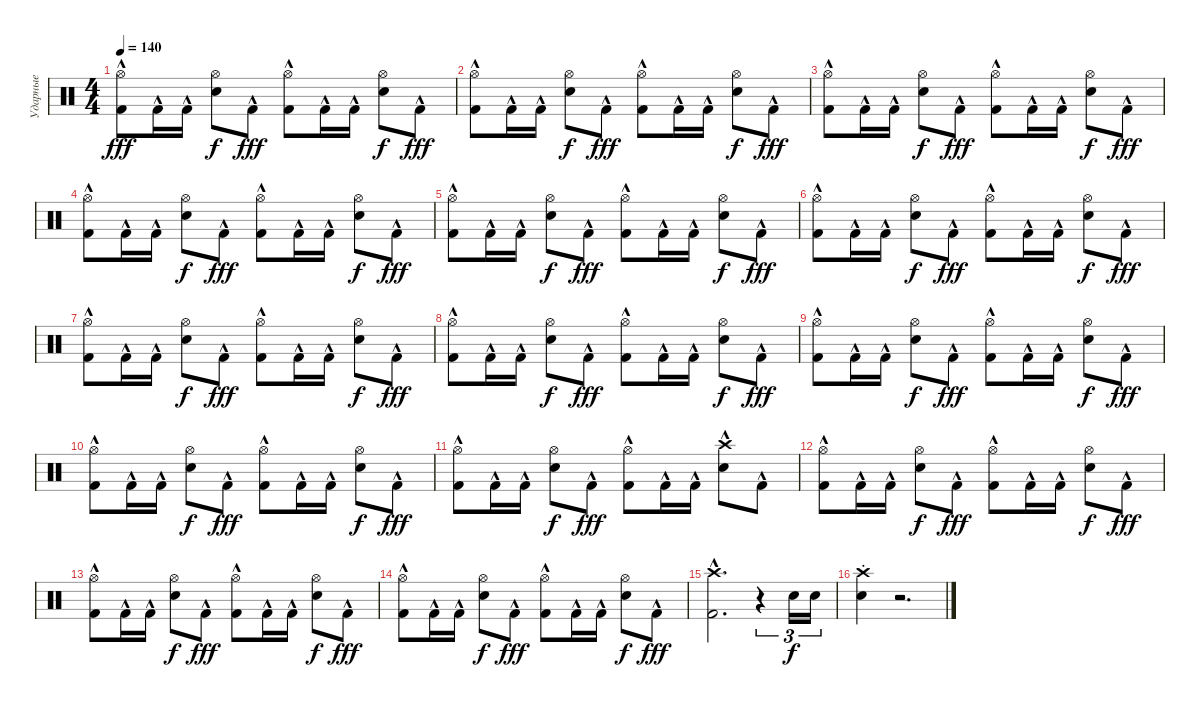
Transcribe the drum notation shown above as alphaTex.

\track ("Ударные" "Ударные") {instrument percussion}
\staff {score}
\articulation defaults
\ts (4 4)
\tempo 140
\clef neutral
\ks c
("Kick (hit) 2"{hac} "Hi-Hat (open)").8{dy fff} "Kick (hit) 2"{hac}.16 "Kick (hit) 2"{hac}.16 ("Snare (hit) 2" "Hi-Hat (open)").8{dy f} "Kick (hit) 2"{hac}.8{dy fff} ("Kick (hit) 2"{hac} "Hi-Hat (open)").8 "Kick (hit) 2"{hac}.16 "Kick (hit) 2"{hac}.16 ("Snare (hit) 2" "Hi-Hat (open)").8{dy f} "Kick (hit) 2"{hac}.8{dy fff} |
("Kick (hit) 2"{hac} "Hi-Hat (open)").8 "Kick (hit) 2"{hac}.16 "Kick (hit) 2"{hac}.16 ("Snare (hit) 2" "Hi-Hat (open)").8{dy f} "Kick (hit) 2"{hac}.8{dy fff} ("Kick (hit) 2"{hac} "Hi-Hat (open)").8 "Kick (hit) 2"{hac}.16 "Kick (hit) 2"{hac}.16 ("Snare (hit) 2" "Hi-Hat (open)").8{dy f} "Kick (hit) 2"{hac}.8{dy fff} |
("Kick (hit) 2"{hac} "Hi-Hat (open)").8 "Kick (hit) 2"{hac}.16 "Kick (hit) 2"{hac}.16 ("Snare (hit) 2" "Hi-Hat (open)").8{dy f} "Kick (hit) 2"{hac}.8{dy fff} ("Kick (hit) 2"{hac} "Hi-Hat (open)").8 "Kick (hit) 2"{hac}.16 "Kick (hit) 2"{hac}.16 ("Snare (hit) 2" "Hi-Hat (open)").8{dy f} "Kick (hit) 2"{hac}.8{dy fff} |
("Kick (hit) 2"{hac} "Hi-Hat (open)").8 "Kick (hit) 2"{hac}.16 "Kick (hit) 2"{hac}.16 ("Snare (hit) 2" "Hi-Hat (open)").8{dy f} "Kick (hit) 2"{hac}.8{dy fff} ("Kick (hit) 2"{hac} "Hi-Hat (open)").8 "Kick (hit) 2"{hac}.16 "Kick (hit) 2"{hac}.16 ("Snare (hit) 2" "Hi-Hat (open)").8{dy f} "Kick (hit) 2"{hac}.8{dy fff} |
("Kick (hit) 2"{hac} "Hi-Hat (open)").8 "Kick (hit) 2"{hac}.16 "Kick (hit) 2"{hac}.16 ("Snare (hit) 2" "Hi-Hat (open)").8{dy f} "Kick (hit) 2"{hac}.8{dy fff} ("Kick (hit) 2"{hac} "Hi-Hat (open)").8 "Kick (hit) 2"{hac}.16 "Kick (hit) 2"{hac}.16 ("Snare (hit) 2" "Hi-Hat (open)").8{dy f} "Kick (hit) 2"{hac}.8{dy fff} |
("Kick (hit) 2"{hac} "Hi-Hat (open)").8 "Kick (hit) 2"{hac}.16 "Kick (hit) 2"{hac}.16 ("Snare (hit) 2" "Hi-Hat (open)").8{dy f} "Kick (hit) 2"{hac}.8{dy fff} ("Kick (hit) 2"{hac} "Hi-Hat (open)").8 "Kick (hit) 2"{hac}.16 "Kick (hit) 2"{hac}.16 ("Snare (hit) 2" "Hi-Hat (open)").8{dy f} "Kick (hit) 2"{hac}.8{dy fff} |
("Kick (hit) 2"{hac} "Hi-Hat (open)").8 "Kick (hit) 2"{hac}.16 "Kick (hit) 2"{hac}.16 ("Snare (hit) 2" "Hi-Hat (open)").8{dy f} "Kick (hit) 2"{hac}.8{dy fff} ("Kick (hit) 2"{hac} "Hi-Hat (open)").8 "Kick (hit) 2"{hac}.16 "Kick (hit) 2"{hac}.16 ("Snare (hit) 2" "Hi-Hat (open)").8{dy f} "Kick (hit) 2"{hac}.8{dy fff} |
("Kick (hit) 2"{hac} "Hi-Hat (open)").8 "Kick (hit) 2"{hac}.16 "Kick (hit) 2"{hac}.16 ("Snare (hit) 2" "Hi-Hat (open)").8{dy f} "Kick (hit) 2"{hac}.8{dy fff} ("Kick (hit) 2"{hac} "Hi-Hat (open)").8 "Kick (hit) 2"{hac}.16 "Kick (hit) 2"{hac}.16 ("Snare (hit) 2" "Hi-Hat (open)").8{dy f} "Kick (hit) 2"{hac}.8{dy fff} |
("Kick (hit) 2"{hac} "Hi-Hat (open)").8 "Kick (hit) 2"{hac}.16 "Kick (hit) 2"{hac}.16 ("Snare (hit) 2" "Hi-Hat (open)").8{dy f} "Kick (hit) 2"{hac}.8{dy fff} ("Kick (hit) 2"{hac} "Hi-Hat (open)").8 "Kick (hit) 2"{hac}.16 "Kick (hit) 2"{hac}.16 ("Snare (hit) 2" "Hi-Hat (open)").8{dy f} "Kick (hit) 2"{hac}.8{dy fff} |
("Kick (hit) 2"{hac} "Hi-Hat (open)").8 "Kick (hit) 2"{hac}.16 "Kick (hit) 2"{hac}.16 ("Snare (hit) 2" "Hi-Hat (open)").8{dy f} "Kick (hit) 2"{hac}.8{dy fff} ("Kick (hit) 2"{hac} "Hi-Hat (open)").8 "Kick (hit) 2"{hac}.16 "Kick (hit) 2"{hac}.16 ("Snare (hit) 2" "Hi-Hat (open)").8{dy f} "Kick (hit) 2"{hac}.8{dy fff} |
("Kick (hit) 2"{hac} "Hi-Hat (open)").8 "Kick (hit) 2"{hac}.16 "Kick (hit) 2"{hac}.16 ("Snare (hit) 2" "Hi-Hat (open)").8{dy f} "Kick (hit) 2"{hac}.8{dy fff} ("Kick (hit) 2"{hac} "Hi-Hat (open)").8 "Kick (hit) 2"{hac}.16 "Kick (hit) 2"{hac}.16 ("Snare (hit) 2" "Crash high (hit)"{hac}).8 "Kick (hit) 2"{hac}.8 |
("Kick (hit) 2"{hac} "Hi-Hat (open)").8 "Kick (hit) 2"{hac}.16 "Kick (hit) 2"{hac}.16 ("Snare (hit) 2" "Hi-Hat (open)").8{dy f} "Kick (hit) 2"{hac}.8{dy fff} ("Kick (hit) 2"{hac} "Hi-Hat (open)").8 "Kick (hit) 2"{hac}.16 "Kick (hit) 2"{hac}.16 ("Snare (hit) 2" "Hi-Hat (open)").8{dy f} "Kick (hit) 2"{hac}.8{dy fff} |
("Kick (hit) 2"{hac} "Hi-Hat (open)").8 "Kick (hit) 2"{hac}.16 "Kick (hit) 2"{hac}.16 ("Snare (hit) 2" "Hi-Hat (open)").8{dy f} "Kick (hit) 2"{hac}.8{dy fff} ("Kick (hit) 2"{hac} "Hi-Hat (open)").8 "Kick (hit) 2"{hac}.16 "Kick (hit) 2"{hac}.16 ("Snare (hit) 2" "Hi-Hat (open)").8{dy f} "Kick (hit) 2"{hac}.8{dy fff} |
("Kick (hit) 2"{hac} "Hi-Hat (open)").8 "Kick (hit) 2"{hac}.16 "Kick (hit) 2"{hac}.16 ("Snare (hit) 2" "Hi-Hat (open)").8{dy f} "Kick (hit) 2"{hac}.8{dy fff} ("Kick (hit) 2"{hac} "Hi-Hat (open)").8 "Kick (hit) 2"{hac}.16 "Kick (hit) 2"{hac}.16 ("Snare (hit) 2" "Hi-Hat (open)").8{dy f} "Kick (hit) 2"{hac}.8{dy fff} |
("Kick (hit) 2"{hac} "Crash high (hit)"{hac}).2{d} r.4{tu (3 2)} "Snare (hit) 2".16{tu (3 2) dy f} "Snare (hit) 2".16{tu (3 2)} |
("Snare (hit) 2"{st} "Crash high (hit)"{st}).4 r.2{d}
